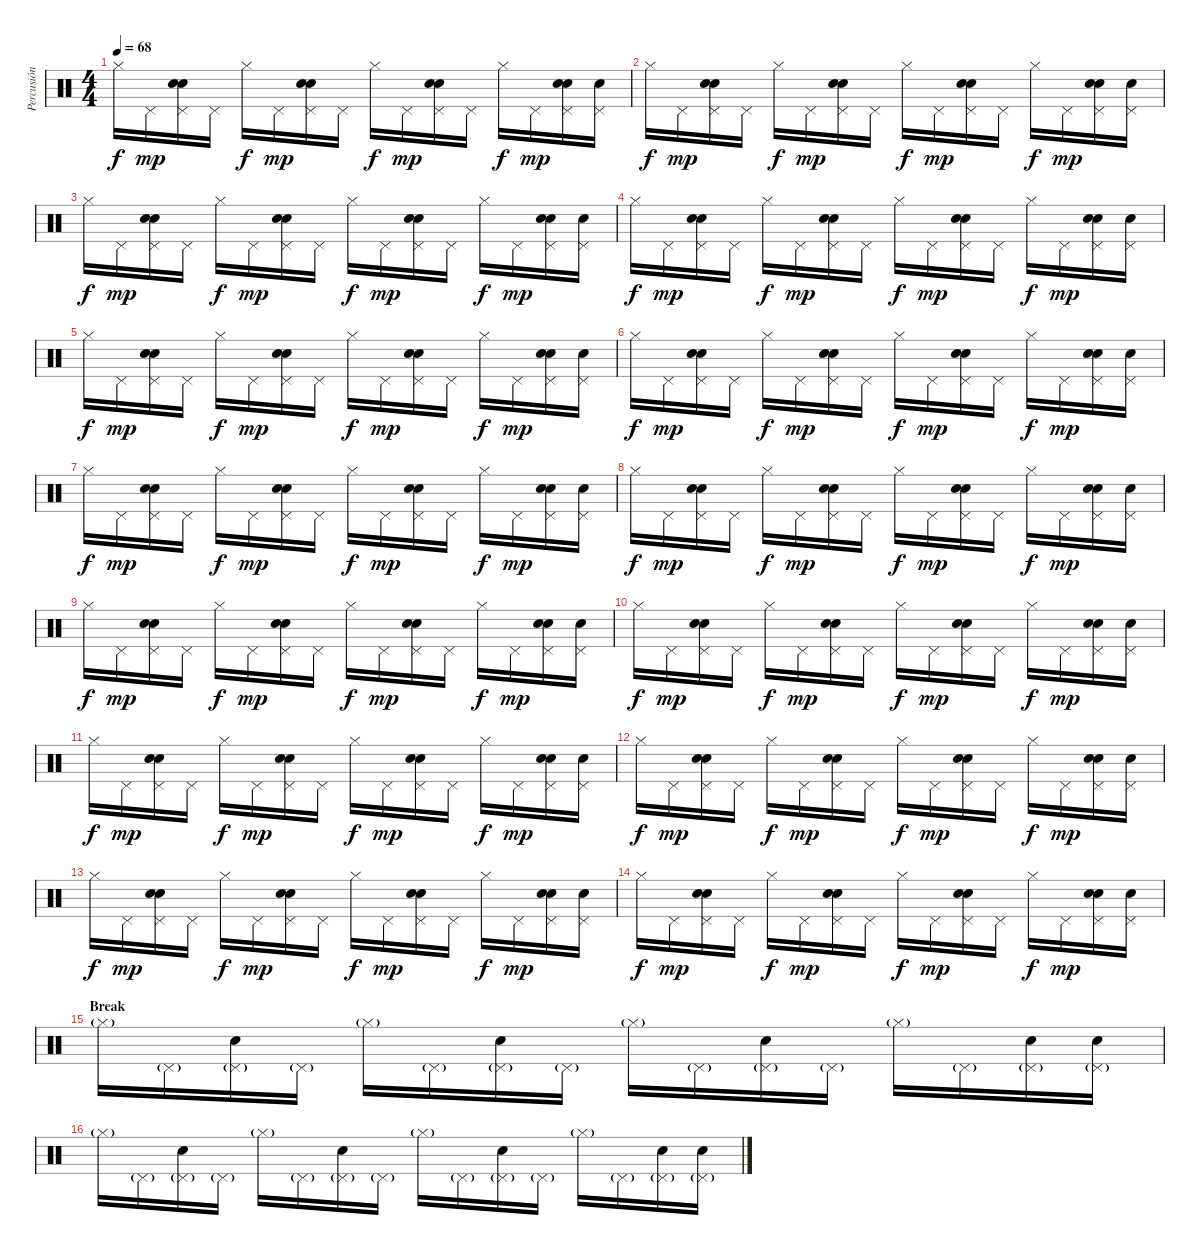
\track ("Percusión" "Percusión") {instrument percussion}
\staff {score}
\articulation defaults
\ts (4 4)
\tempo 68
\clef neutral
\ks c "Hi-Hat (closed)".16{dy f} "Pedal Hi-Hat (hit)".16{dy mp}
("Pedal Hi-Hat (hit)" "Electric Snare (hit)" "Hand Clap (hit)").16 "Pedal Hi-Hat (hit)".16 "Hi-Hat (closed)".16{dy f} "Pedal Hi-Hat (hit)".16{dy mp} ("Pedal Hi-Hat (hit)" "Electric Snare (hit)" "Hand Clap (hit)").16 "Pedal Hi-Hat (hit)".16 "Hi-Hat (closed)".16{dy f} "Pedal Hi-Hat (hit)".16{dy mp} ("Pedal Hi-Hat (hit)" "Electric Snare (hit)" "Hand Clap (hit)").16 "Pedal Hi-Hat (hit)".16 "Hi-Hat (closed)".16{dy f} "Pedal Hi-Hat (hit)".16{dy mp} ("Pedal Hi-Hat (hit)" "Electric Snare (hit)" "Hand Clap (hit)").16 ("Pedal Hi-Hat (hit)" "Electric Snare (hit)").16 |
"Hi-Hat (closed)".16{dy f} "Pedal Hi-Hat (hit)".16{dy mp} ("Pedal Hi-Hat (hit)" "Electric Snare (hit)" "Hand Clap (hit)").16 "Pedal Hi-Hat (hit)".16 "Hi-Hat (closed)".16{dy f} "Pedal Hi-Hat (hit)".16{dy mp} ("Pedal Hi-Hat (hit)" "Electric Snare (hit)" "Hand Clap (hit)").16 "Pedal Hi-Hat (hit)".16 "Hi-Hat (closed)".16{dy f} "Pedal Hi-Hat (hit)".16{dy mp} ("Pedal Hi-Hat (hit)" "Electric Snare (hit)" "Hand Clap (hit)").16 "Pedal Hi-Hat (hit)".16 "Hi-Hat (closed)".16{dy f} "Pedal Hi-Hat (hit)".16{dy mp} ("Pedal Hi-Hat (hit)" "Electric Snare (hit)" "Hand Clap (hit)").16 ("Pedal Hi-Hat (hit)" "Electric Snare (hit)").16 |
"Hi-Hat (closed)".16{dy f} "Pedal Hi-Hat (hit)".16{dy mp} ("Pedal Hi-Hat (hit)" "Electric Snare (hit)" "Hand Clap (hit)").16 "Pedal Hi-Hat (hit)".16 "Hi-Hat (closed)".16{dy f} "Pedal Hi-Hat (hit)".16{dy mp} ("Pedal Hi-Hat (hit)" "Electric Snare (hit)" "Hand Clap (hit)").16 "Pedal Hi-Hat (hit)".16 "Hi-Hat (closed)".16{dy f} "Pedal Hi-Hat (hit)".16{dy mp} ("Pedal Hi-Hat (hit)" "Electric Snare (hit)" "Hand Clap (hit)").16 "Pedal Hi-Hat (hit)".16 "Hi-Hat (closed)".16{dy f} "Pedal Hi-Hat (hit)".16{dy mp} ("Pedal Hi-Hat (hit)" "Electric Snare (hit)" "Hand Clap (hit)").16 ("Pedal Hi-Hat (hit)" "Electric Snare (hit)").16 |
"Hi-Hat (closed)".16{dy f} "Pedal Hi-Hat (hit)".16{dy mp} ("Pedal Hi-Hat (hit)" "Electric Snare (hit)" "Hand Clap (hit)").16 "Pedal Hi-Hat (hit)".16 "Hi-Hat (closed)".16{dy f} "Pedal Hi-Hat (hit)".16{dy mp} ("Pedal Hi-Hat (hit)" "Electric Snare (hit)" "Hand Clap (hit)").16 "Pedal Hi-Hat (hit)".16 "Hi-Hat (closed)".16{dy f} "Pedal Hi-Hat (hit)".16{dy mp} ("Pedal Hi-Hat (hit)" "Electric Snare (hit)" "Hand Clap (hit)").16 "Pedal Hi-Hat (hit)".16 "Hi-Hat (closed)".16{dy f} "Pedal Hi-Hat (hit)".16{dy mp} ("Pedal Hi-Hat (hit)" "Electric Snare (hit)" "Hand Clap (hit)").16 ("Pedal Hi-Hat (hit)" "Electric Snare (hit)").16 |
"Hi-Hat (closed)".16{dy f} "Pedal Hi-Hat (hit)".16{dy mp} ("Pedal Hi-Hat (hit)" "Electric Snare (hit)" "Hand Clap (hit)").16 "Pedal Hi-Hat (hit)".16 "Hi-Hat (closed)".16{dy f} "Pedal Hi-Hat (hit)".16{dy mp} ("Pedal Hi-Hat (hit)" "Electric Snare (hit)" "Hand Clap (hit)").16 "Pedal Hi-Hat (hit)".16 "Hi-Hat (closed)".16{dy f} "Pedal Hi-Hat (hit)".16{dy mp} ("Pedal Hi-Hat (hit)" "Electric Snare (hit)" "Hand Clap (hit)").16 "Pedal Hi-Hat (hit)".16 "Hi-Hat (closed)".16{dy f} "Pedal Hi-Hat (hit)".16{dy mp} ("Pedal Hi-Hat (hit)" "Electric Snare (hit)" "Hand Clap (hit)").16 ("Pedal Hi-Hat (hit)" "Electric Snare (hit)").16 |
"Hi-Hat (closed)".16{dy f} "Pedal Hi-Hat (hit)".16{dy mp} ("Pedal Hi-Hat (hit)" "Electric Snare (hit)" "Hand Clap (hit)").16 "Pedal Hi-Hat (hit)".16 "Hi-Hat (closed)".16{dy f} "Pedal Hi-Hat (hit)".16{dy mp} ("Pedal Hi-Hat (hit)" "Electric Snare (hit)" "Hand Clap (hit)").16 "Pedal Hi-Hat (hit)".16 "Hi-Hat (closed)".16{dy f} "Pedal Hi-Hat (hit)".16{dy mp} ("Pedal Hi-Hat (hit)" "Electric Snare (hit)" "Hand Clap (hit)").16 "Pedal Hi-Hat (hit)".16 "Hi-Hat (closed)".16{dy f} "Pedal Hi-Hat (hit)".16{dy mp} ("Pedal Hi-Hat (hit)" "Electric Snare (hit)" "Hand Clap (hit)").16 ("Pedal Hi-Hat (hit)" "Electric Snare (hit)").16 |
"Hi-Hat (closed)".16{dy f} "Pedal Hi-Hat (hit)".16{dy mp} ("Pedal Hi-Hat (hit)" "Electric Snare (hit)" "Hand Clap (hit)").16 "Pedal Hi-Hat (hit)".16 "Hi-Hat (closed)".16{dy f} "Pedal Hi-Hat (hit)".16{dy mp} ("Pedal Hi-Hat (hit)" "Electric Snare (hit)" "Hand Clap (hit)").16 "Pedal Hi-Hat (hit)".16 "Hi-Hat (closed)".16{dy f} "Pedal Hi-Hat (hit)".16{dy mp} ("Pedal Hi-Hat (hit)" "Electric Snare (hit)" "Hand Clap (hit)").16 "Pedal Hi-Hat (hit)".16 "Hi-Hat (closed)".16{dy f} "Pedal Hi-Hat (hit)".16{dy mp} ("Pedal Hi-Hat (hit)" "Electric Snare (hit)" "Hand Clap (hit)").16 ("Pedal Hi-Hat (hit)" "Electric Snare (hit)").16 |
"Hi-Hat (closed)".16{dy f} "Pedal Hi-Hat (hit)".16{dy mp} ("Pedal Hi-Hat (hit)" "Electric Snare (hit)" "Hand Clap (hit)").16 "Pedal Hi-Hat (hit)".16 "Hi-Hat (closed)".16{dy f} "Pedal Hi-Hat (hit)".16{dy mp} ("Pedal Hi-Hat (hit)" "Electric Snare (hit)" "Hand Clap (hit)").16 "Pedal Hi-Hat (hit)".16 "Hi-Hat (closed)".16{dy f} "Pedal Hi-Hat (hit)".16{dy mp} ("Pedal Hi-Hat (hit)" "Electric Snare (hit)" "Hand Clap (hit)").16 "Pedal Hi-Hat (hit)".16 "Hi-Hat (closed)".16{dy f} "Pedal Hi-Hat (hit)".16{dy mp} ("Pedal Hi-Hat (hit)" "Electric Snare (hit)" "Hand Clap (hit)").16 ("Pedal Hi-Hat (hit)" "Electric Snare (hit)").16 |
"Hi-Hat (closed)".16{dy f} "Pedal Hi-Hat (hit)".16{dy mp} ("Pedal Hi-Hat (hit)" "Electric Snare (hit)" "Hand Clap (hit)").16 "Pedal Hi-Hat (hit)".16 "Hi-Hat (closed)".16{dy f} "Pedal Hi-Hat (hit)".16{dy mp} ("Pedal Hi-Hat (hit)" "Electric Snare (hit)" "Hand Clap (hit)").16 "Pedal Hi-Hat (hit)".16 "Hi-Hat (closed)".16{dy f} "Pedal Hi-Hat (hit)".16{dy mp} ("Pedal Hi-Hat (hit)" "Electric Snare (hit)" "Hand Clap (hit)").16 "Pedal Hi-Hat (hit)".16 "Hi-Hat (closed)".16{dy f} "Pedal Hi-Hat (hit)".16{dy mp} ("Pedal Hi-Hat (hit)" "Electric Snare (hit)" "Hand Clap (hit)").16 ("Pedal Hi-Hat (hit)" "Electric Snare (hit)").16 |
"Hi-Hat (closed)".16{dy f} "Pedal Hi-Hat (hit)".16{dy mp} ("Pedal Hi-Hat (hit)" "Electric Snare (hit)" "Hand Clap (hit)").16 "Pedal Hi-Hat (hit)".16 "Hi-Hat (closed)".16{dy f} "Pedal Hi-Hat (hit)".16{dy mp} ("Pedal Hi-Hat (hit)" "Electric Snare (hit)" "Hand Clap (hit)").16 "Pedal Hi-Hat (hit)".16 "Hi-Hat (closed)".16{dy f} "Pedal Hi-Hat (hit)".16{dy mp} ("Pedal Hi-Hat (hit)" "Electric Snare (hit)" "Hand Clap (hit)").16 "Pedal Hi-Hat (hit)".16 "Hi-Hat (closed)".16{dy f} "Pedal Hi-Hat (hit)".16{dy mp} ("Pedal Hi-Hat (hit)" "Electric Snare (hit)" "Hand Clap (hit)").16 ("Pedal Hi-Hat (hit)" "Electric Snare (hit)").16 |
"Hi-Hat (closed)".16{dy f} "Pedal Hi-Hat (hit)".16{dy mp} ("Pedal Hi-Hat (hit)" "Electric Snare (hit)" "Hand Clap (hit)").16 "Pedal Hi-Hat (hit)".16 "Hi-Hat (closed)".16{dy f} "Pedal Hi-Hat (hit)".16{dy mp} ("Pedal Hi-Hat (hit)" "Electric Snare (hit)" "Hand Clap (hit)").16 "Pedal Hi-Hat (hit)".16 "Hi-Hat (closed)".16{dy f} "Pedal Hi-Hat (hit)".16{dy mp} ("Pedal Hi-Hat (hit)" "Electric Snare (hit)" "Hand Clap (hit)").16 "Pedal Hi-Hat (hit)".16 "Hi-Hat (closed)".16{dy f} "Pedal Hi-Hat (hit)".16{dy mp} ("Pedal Hi-Hat (hit)" "Electric Snare (hit)" "Hand Clap (hit)").16 ("Pedal Hi-Hat (hit)" "Electric Snare (hit)").16 |
"Hi-Hat (closed)".16{dy f} "Pedal Hi-Hat (hit)".16{dy mp} ("Pedal Hi-Hat (hit)" "Electric Snare (hit)" "Hand Clap (hit)").16 "Pedal Hi-Hat (hit)".16 "Hi-Hat (closed)".16{dy f} "Pedal Hi-Hat (hit)".16{dy mp} ("Pedal Hi-Hat (hit)" "Electric Snare (hit)" "Hand Clap (hit)").16 "Pedal Hi-Hat (hit)".16 "Hi-Hat (closed)".16{dy f} "Pedal Hi-Hat (hit)".16{dy mp} ("Pedal Hi-Hat (hit)" "Electric Snare (hit)" "Hand Clap (hit)").16 "Pedal Hi-Hat (hit)".16 "Hi-Hat (closed)".16{dy f} "Pedal Hi-Hat (hit)".16{dy mp} ("Pedal Hi-Hat (hit)" "Electric Snare (hit)" "Hand Clap (hit)").16 ("Pedal Hi-Hat (hit)" "Electric Snare (hit)").16 |
"Hi-Hat (closed)".16{dy f} "Pedal Hi-Hat (hit)".16{dy mp} ("Pedal Hi-Hat (hit)" "Electric Snare (hit)" "Hand Clap (hit)").16 "Pedal Hi-Hat (hit)".16 "Hi-Hat (closed)".16{dy f} "Pedal Hi-Hat (hit)".16{dy mp} ("Pedal Hi-Hat (hit)" "Electric Snare (hit)" "Hand Clap (hit)").16 "Pedal Hi-Hat (hit)".16 "Hi-Hat (closed)".16{dy f} "Pedal Hi-Hat (hit)".16{dy mp} ("Pedal Hi-Hat (hit)" "Electric Snare (hit)" "Hand Clap (hit)").16 "Pedal Hi-Hat (hit)".16 "Hi-Hat (closed)".16{dy f} "Pedal Hi-Hat (hit)".16{dy mp} ("Pedal Hi-Hat (hit)" "Electric Snare (hit)" "Hand Clap (hit)").16 ("Pedal Hi-Hat (hit)" "Electric Snare (hit)").16 |
"Hi-Hat (closed)".16{dy f} "Pedal Hi-Hat (hit)".16{dy mp} ("Pedal Hi-Hat (hit)" "Electric Snare (hit)" "Hand Clap (hit)").16 "Pedal Hi-Hat (hit)".16 "Hi-Hat (closed)".16{dy f} "Pedal Hi-Hat (hit)".16{dy mp} ("Pedal Hi-Hat (hit)" "Electric Snare (hit)" "Hand Clap (hit)").16 "Pedal Hi-Hat (hit)".16 "Hi-Hat (closed)".16{dy f} "Pedal Hi-Hat (hit)".16{dy mp} ("Pedal Hi-Hat (hit)" "Electric Snare (hit)" "Hand Clap (hit)").16 "Pedal Hi-Hat (hit)".16 "Hi-Hat (closed)".16{dy f} "Pedal Hi-Hat (hit)".16{dy mp} ("Pedal Hi-Hat (hit)" "Electric Snare (hit)" "Hand Clap (hit)").16 ("Pedal Hi-Hat (hit)" "Electric Snare (hit)").16 |
\section ("" "Break")
"Hi-Hat (closed)"{g}.16 "Pedal Hi-Hat (hit)"{g}.16 ("Pedal Hi-Hat (hit)"{g} "Electric Snare (hit)").16 "Pedal Hi-Hat (hit)"{g}.16 "Hi-Hat (closed)"{g}.16 "Pedal Hi-Hat (hit)"{g}.16 ("Pedal Hi-Hat (hit)"{g} "Electric Snare (hit)").16 "Pedal Hi-Hat (hit)"{g}.16 "Hi-Hat (closed)"{g}.16 "Pedal Hi-Hat (hit)"{g}.16 ("Pedal Hi-Hat (hit)"{g} "Electric Snare (hit)").16 "Pedal Hi-Hat (hit)"{g}.16 "Hi-Hat (closed)"{g}.16 "Pedal Hi-Hat (hit)"{g}.16 ("Pedal Hi-Hat (hit)"{g} "Electric Snare (hit)").16 ("Pedal Hi-Hat (hit)"{g} "Electric Snare (hit)").16 |
"Hi-Hat (closed)"{g}.16 "Pedal Hi-Hat (hit)"{g}.16 ("Pedal Hi-Hat (hit)"{g} "Electric Snare (hit)").16 "Pedal Hi-Hat (hit)"{g}.16 "Hi-Hat (closed)"{g}.16 "Pedal Hi-Hat (hit)"{g}.16 ("Pedal Hi-Hat (hit)"{g} "Electric Snare (hit)").16 "Pedal Hi-Hat (hit)"{g}.16 "Hi-Hat (closed)"{g}.16 "Pedal Hi-Hat (hit)"{g}.16 ("Pedal Hi-Hat (hit)"{g} "Electric Snare (hit)").16 "Pedal Hi-Hat (hit)"{g}.16 "Hi-Hat (closed)"{g}.16 "Pedal Hi-Hat (hit)"{g}.16 ("Pedal Hi-Hat (hit)"{g} "Electric Snare (hit)").16 ("Pedal Hi-Hat (hit)"{g} "Electric Snare (hit)").16
